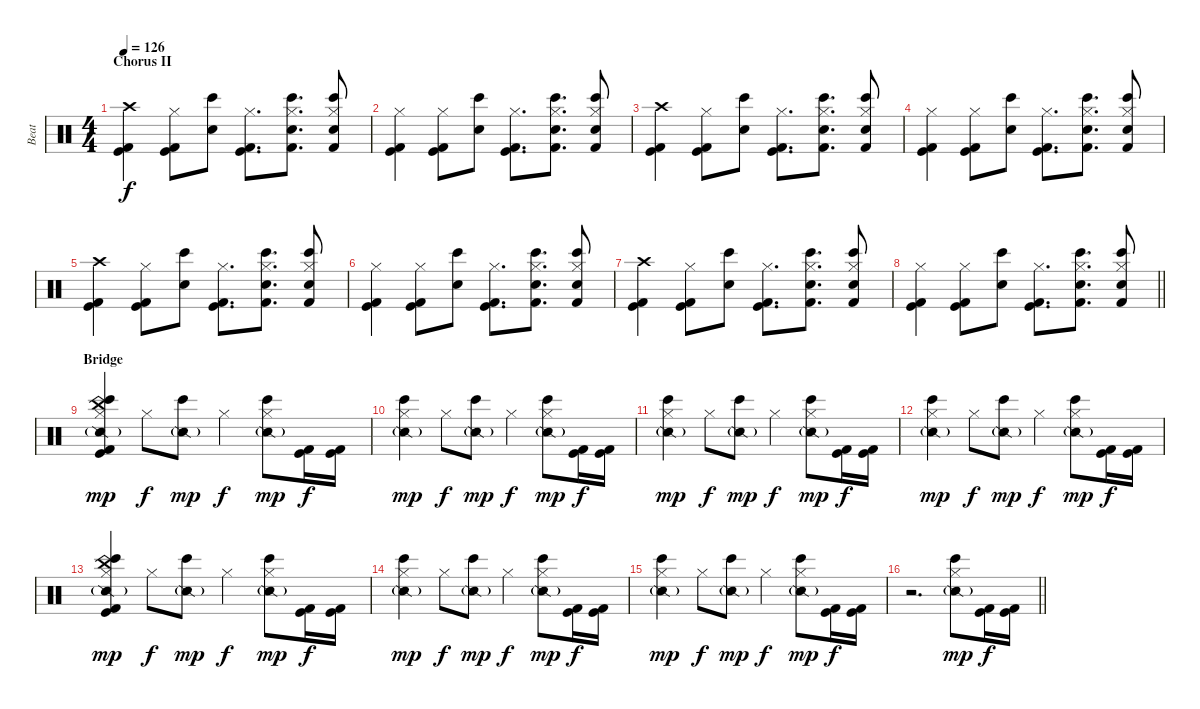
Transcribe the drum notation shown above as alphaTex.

\track ("Beat" "Beat") {instrument percussion}
\staff {score}
\articulation defaults
\ts (4 4)
\section ("" "Chorus II")
\tempo 126
\clef neutral
\ks c
("Crash high (hit)" "Kick (hit)" "Kick (hit) 2").4{dy f} ("Hi-Hat (closed)" "Kick (hit)" "Kick (hit) 2").8 ("Bongo High (hit)" "Snare (hit) 2").8 ("Hi-Hat (closed)" "Kick (hit)" "Kick (hit) 2").8{d} ("Hi-Hat (closed)" "Bongo High (hit)" "Snare (hit) 2" "Kick (hit) 2").8{d} ("Hi-Hat (closed)" "Bongo High (hit)" "Snare (hit) 2" "Kick (hit) 2").8 |
("Hi-Hat (closed)" "Kick (hit)" "Kick (hit) 2").4 ("Hi-Hat (closed)" "Kick (hit)" "Kick (hit) 2").8 ("Bongo High (hit)" "Snare (hit) 2").8 ("Hi-Hat (closed)" "Kick (hit)" "Kick (hit) 2").8{d} ("Hi-Hat (closed)" "Bongo High (hit)" "Snare (hit) 2" "Kick (hit) 2").8{d} ("Hi-Hat (closed)" "Bongo High (hit)" "Snare (hit) 2" "Kick (hit) 2").8 |
("Crash high (hit)" "Kick (hit)" "Kick (hit) 2").4 ("Hi-Hat (closed)" "Kick (hit)" "Kick (hit) 2").8 ("Bongo High (hit)" "Snare (hit) 2").8 ("Hi-Hat (closed)" "Kick (hit)" "Kick (hit) 2").8{d} ("Hi-Hat (closed)" "Bongo High (hit)" "Snare (hit) 2" "Kick (hit) 2").8{d} ("Hi-Hat (closed)" "Bongo High (hit)" "Snare (hit) 2" "Kick (hit) 2").8 |
("Hi-Hat (closed)" "Kick (hit)" "Kick (hit) 2").4 ("Hi-Hat (closed)" "Kick (hit)" "Kick (hit) 2").8 ("Bongo High (hit)" "Snare (hit) 2").8 ("Hi-Hat (closed)" "Kick (hit)" "Kick (hit) 2").8{d} ("Hi-Hat (closed)" "Bongo High (hit)" "Snare (hit) 2" "Kick (hit) 2").8{d} ("Hi-Hat (closed)" "Bongo High (hit)" "Snare (hit) 2" "Kick (hit) 2").8 |
("Crash high (hit)" "Kick (hit)" "Kick (hit) 2").4 ("Hi-Hat (closed)" "Kick (hit)" "Kick (hit) 2").8 ("Bongo High (hit)" "Snare (hit) 2").8 ("Hi-Hat (closed)" "Kick (hit)" "Kick (hit) 2").8{d} ("Hi-Hat (closed)" "Bongo High (hit)" "Snare (hit) 2" "Kick (hit) 2").8{d} ("Hi-Hat (closed)" "Bongo High (hit)" "Snare (hit) 2" "Kick (hit) 2").8 |
("Hi-Hat (closed)" "Kick (hit)" "Kick (hit) 2").4 ("Hi-Hat (closed)" "Kick (hit)" "Kick (hit) 2").8 ("Bongo High (hit)" "Snare (hit) 2").8 ("Hi-Hat (closed)" "Kick (hit)" "Kick (hit) 2").8{d} ("Hi-Hat (closed)" "Bongo High (hit)" "Snare (hit) 2" "Kick (hit) 2").8{d} ("Hi-Hat (closed)" "Bongo High (hit)" "Snare (hit) 2" "Kick (hit) 2").8 |
("Crash high (hit)" "Kick (hit)" "Kick (hit) 2").4 ("Hi-Hat (closed)" "Kick (hit)" "Kick (hit) 2").8 ("Bongo High (hit)" "Snare (hit) 2").8 ("Hi-Hat (closed)" "Kick (hit)" "Kick (hit) 2").8{d} ("Hi-Hat (closed)" "Bongo High (hit)" "Snare (hit) 2" "Kick (hit) 2").8{d} ("Hi-Hat (closed)" "Bongo High (hit)" "Snare (hit) 2" "Kick (hit) 2").8 |
\barLineRight lightlight
("Hi-Hat (closed)" "Kick (hit)" "Kick (hit) 2").4 ("Hi-Hat (closed)" "Kick (hit)" "Kick (hit) 2").8 ("Bongo High (hit)" "Snare (hit) 2").8 ("Hi-Hat (closed)" "Kick (hit)" "Kick (hit) 2").8{d} ("Hi-Hat (closed)" "Bongo High (hit)" "Snare (hit) 2" "Kick (hit) 2").8{d} ("Hi-Hat (closed)" "Bongo High (hit)" "Snare (hit) 2" "Kick (hit) 2").8 |
\section ("" "Bridge")
("China (hit)" "Hi-Hat (closed)" "Bongo High (hit)" "Snare (side stick) 2"{g} "Kick (hit)" "Kick (hit) 2").4{dy mp} "Hi-Hat (closed)".8{dy f} ("Bongo High (hit)" "Snare (side stick) 2"{g}).8{dy mp} "Hi-Hat (closed)".4{dy f} ("Hi-Hat (closed)" "Bongo High (hit)" "Snare (side stick) 2"{g}).8{dy mp} ("Kick (hit)" "Kick (hit) 2").16{dy f} ("Kick (hit)" "Kick (hit) 2").16 |
("Hi-Hat (closed)" "Bongo High (hit)" "Snare (side stick) 2"{g}).4{dy mp} "Hi-Hat (closed)".8{dy f} ("Bongo High (hit)" "Snare (side stick) 2"{g}).8{dy mp} "Hi-Hat (closed)".4{dy f} ("Hi-Hat (closed)" "Bongo High (hit)" "Snare (side stick) 2"{g}).8{dy mp} ("Kick (hit)" "Kick (hit) 2").16{dy f} ("Kick (hit)" "Kick (hit) 2").16 |
("Hi-Hat (closed)" "Bongo High (hit)" "Snare (side stick) 2"{g}).4{dy mp} "Hi-Hat (closed)".8{dy f} ("Bongo High (hit)" "Snare (side stick) 2"{g}).8{dy mp} "Hi-Hat (closed)".4{dy f} ("Hi-Hat (closed)" "Bongo High (hit)" "Snare (side stick) 2"{g}).8{dy mp} ("Kick (hit)" "Kick (hit) 2").16{dy f} ("Kick (hit)" "Kick (hit) 2").16 |
("Hi-Hat (closed)" "Bongo High (hit)" "Snare (side stick) 2"{g}).4{dy mp} "Hi-Hat (closed)".8{dy f} ("Bongo High (hit)" "Snare (side stick) 2"{g}).8{dy mp} "Hi-Hat (closed)".4{dy f} ("Hi-Hat (closed)" "Bongo High (hit)" "Snare (side stick) 2"{g}).8{dy mp} ("Kick (hit)" "Kick (hit) 2").16{dy f} ("Kick (hit)" "Kick (hit) 2").16 |
("China (hit)" "Hi-Hat (closed)" "Bongo High (hit)" "Snare (side stick) 2"{g} "Kick (hit)" "Kick (hit) 2").4{dy mp} "Hi-Hat (closed)".8{dy f} ("Bongo High (hit)" "Snare (side stick) 2"{g}).8{dy mp} "Hi-Hat (closed)".4{dy f} ("Hi-Hat (closed)" "Bongo High (hit)" "Snare (side stick) 2"{g}).8{dy mp} ("Kick (hit)" "Kick (hit) 2").16{dy f} ("Kick (hit)" "Kick (hit) 2").16 |
("Hi-Hat (closed)" "Bongo High (hit)" "Snare (side stick) 2"{g}).4{dy mp} "Hi-Hat (closed)".8{dy f} ("Bongo High (hit)" "Snare (side stick) 2"{g}).8{dy mp} "Hi-Hat (closed)".4{dy f} ("Hi-Hat (closed)" "Bongo High (hit)" "Snare (side stick) 2"{g}).8{dy mp} ("Kick (hit)" "Kick (hit) 2").16{dy f} ("Kick (hit)" "Kick (hit) 2").16 |
("Hi-Hat (closed)" "Bongo High (hit)" "Snare (side stick) 2"{g}).4{dy mp} "Hi-Hat (closed)".8{dy f} ("Bongo High (hit)" "Snare (side stick) 2"{g}).8{dy mp} "Hi-Hat (closed)".4{dy f} ("Hi-Hat (closed)" "Bongo High (hit)" "Snare (side stick) 2"{g}).8{dy mp} ("Kick (hit)" "Kick (hit) 2").16{dy f} ("Kick (hit)" "Kick (hit) 2").16 |
\barLineRight lightlight
r.2{d} ("Hi-Hat (closed)" "Bongo High (hit)" "Snare (side stick) 2"{g}).8{dy mp} ("Kick (hit)" "Kick (hit) 2").16{dy f} ("Kick (hit)" "Kick (hit) 2").16
